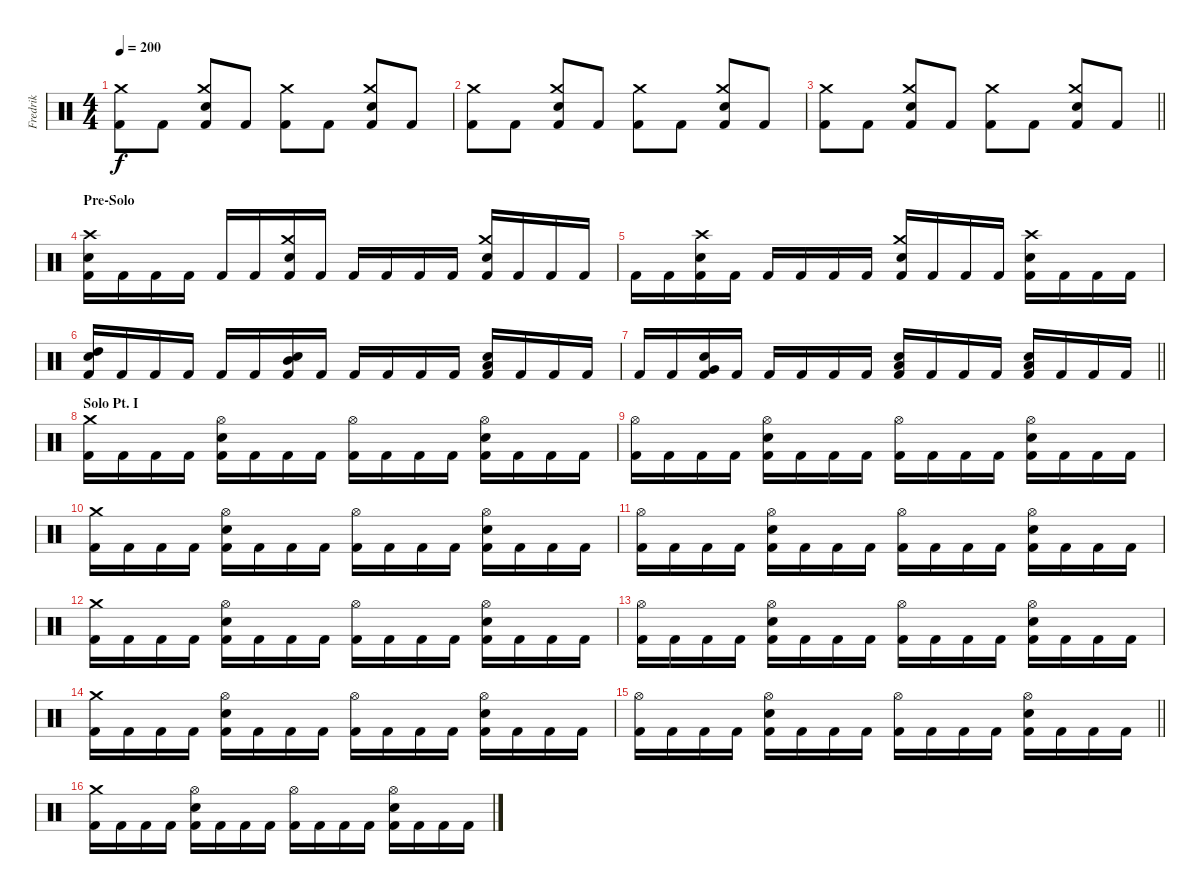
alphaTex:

\track ("Fredrik" "Fredrik") {instrument percussion}
\staff {score}
\articulation defaults
\ts (4 4)
\tempo 200
\clef neutral
\ks c
("Kick (hit) 2" "Crash medium (hit)").8{dy f} "Kick (hit) 2".8 ("Kick (hit) 2" "Snare (hit) 2" "Crash medium (hit)").8 "Kick (hit) 2".8 ("Kick (hit) 2" "Crash medium (hit)").8 "Kick (hit) 2".8 ("Kick (hit) 2" "Snare (hit) 2" "Crash medium (hit)").8 "Kick (hit) 2".8 |
("Kick (hit) 2" "Crash medium (hit)").8 "Kick (hit) 2".8 ("Kick (hit) 2" "Snare (hit) 2" "Crash medium (hit)").8 "Kick (hit) 2".8 ("Kick (hit) 2" "Crash medium (hit)").8 "Kick (hit) 2".8 ("Kick (hit) 2" "Snare (hit) 2" "Crash medium (hit)").8 "Kick (hit) 2".8 |
\barLineRight lightlight
("Kick (hit) 2" "Crash medium (hit)").8 "Kick (hit) 2".8 ("Kick (hit) 2" "Snare (hit) 2" "Crash medium (hit)").8 "Kick (hit) 2".8 ("Kick (hit) 2" "Crash medium (hit)").8 "Kick (hit) 2".8 ("Kick (hit) 2" "Snare (hit) 2" "Crash medium (hit)").8 "Kick (hit) 2".8 |
\section ("" "Pre-Solo")
("Kick (hit) 2" "Snare (hit) 2" "Crash high (hit)").16 "Kick (hit) 2".16 "Kick (hit) 2".16 "Kick (hit) 2".16 "Kick (hit) 2".16 "Kick (hit) 2".16 ("Kick (hit) 2" "Snare (hit) 2" "Crash medium (hit)").16 "Kick (hit) 2".16 "Kick (hit) 2".16 "Kick (hit) 2".16 "Kick (hit) 2".16 "Kick (hit) 2".16 ("Kick (hit) 2" "Snare (hit) 2" "Crash medium (hit)").16 "Kick (hit) 2".16 "Kick (hit) 2".16 "Kick (hit) 2".16 |
"Kick (hit) 2".16 "Kick (hit) 2".16 ("Kick (hit) 2" "Snare (hit) 2" "Crash high (hit)").16 "Kick (hit) 2".16 "Kick (hit) 2".16 "Kick (hit) 2".16 "Kick (hit) 2".16 "Kick (hit) 2".16 ("Kick (hit) 2" "Snare (hit) 2" "Crash medium (hit)").16 "Kick (hit) 2".16 "Kick (hit) 2".16 "Kick (hit) 2".16 ("Kick (hit) 2" "Snare (hit) 2" "Crash high (hit)").16 "Kick (hit) 2".16 "Kick (hit) 2".16 "Kick (hit) 2".16 |
("Kick (hit) 2" "Snare (hit) 2" "High Tom (hit)").16 "Kick (hit) 2".16 "Kick (hit) 2".16 "Kick (hit) 2".16 "Kick (hit) 2".16 "Kick (hit) 2".16 ("Kick (hit) 2" "Snare (hit) 2" "Mid Tom (hit)").16 "Kick (hit) 2".16 "Kick (hit) 2".16 "Kick (hit) 2".16 "Kick (hit) 2".16 "Kick (hit) 2".16 ("Kick (hit) 2" "Snare (hit) 2" "Low Tom (hit)").16 "Kick (hit) 2".16 "Kick (hit) 2".16 "Kick (hit) 2".16 |
\barLineRight lightlight "Kick (hit) 2".16 "Kick (hit) 2".16
("Kick (hit) 2" "Snare (hit) 2" "Very Low Tom (hit)").16 "Kick (hit) 2".16 "Kick (hit) 2".16 "Kick (hit) 2".16 "Kick (hit) 2".16 "Kick (hit) 2".16 ("Kick (hit) 2" "Snare (hit) 2" "Low Floor Tom (hit)").16 "Kick (hit) 2".16 "Kick (hit) 2".16 "Kick (hit) 2".16 ("Kick (hit) 2" "Snare (hit) 2" "Low Floor Tom (hit)").16 "Kick (hit) 2".16 "Kick (hit) 2".16 "Kick (hit) 2".16 |
\section ("" "Solo Pt. I")
("Kick (hit) 2" "Crash medium (hit)").16 "Kick (hit) 2".16 "Kick (hit) 2".16 "Kick (hit) 2".16 ("Kick (hit) 2" "Snare (hit) 2" "Hi-Hat (open)").16 "Kick (hit) 2".16 "Kick (hit) 2".16 "Kick (hit) 2".16 ("Kick (hit) 2" "Hi-Hat (open)").16 "Kick (hit) 2".16 "Kick (hit) 2".16 "Kick (hit) 2".16 ("Kick (hit) 2" "Snare (hit) 2" "Hi-Hat (open)").16 "Kick (hit) 2".16 "Kick (hit) 2".16 "Kick (hit) 2".16 |
("Kick (hit) 2" "Hi-Hat (open)").16 "Kick (hit) 2".16 "Kick (hit) 2".16 "Kick (hit) 2".16 ("Kick (hit) 2" "Snare (hit) 2" "Hi-Hat (open)").16 "Kick (hit) 2".16 "Kick (hit) 2".16 "Kick (hit) 2".16 ("Kick (hit) 2" "Hi-Hat (open)").16 "Kick (hit) 2".16 "Kick (hit) 2".16 "Kick (hit) 2".16 ("Kick (hit) 2" "Snare (hit) 2" "Hi-Hat (open)").16 "Kick (hit) 2".16 "Kick (hit) 2".16 "Kick (hit) 2".16 |
("Kick (hit) 2" "Crash medium (hit)").16 "Kick (hit) 2".16 "Kick (hit) 2".16 "Kick (hit) 2".16 ("Kick (hit) 2" "Snare (hit) 2" "Hi-Hat (open)").16 "Kick (hit) 2".16 "Kick (hit) 2".16 "Kick (hit) 2".16 ("Kick (hit) 2" "Hi-Hat (open)").16 "Kick (hit) 2".16 "Kick (hit) 2".16 "Kick (hit) 2".16 ("Kick (hit) 2" "Snare (hit) 2" "Hi-Hat (open)").16 "Kick (hit) 2".16 "Kick (hit) 2".16 "Kick (hit) 2".16 |
("Kick (hit) 2" "Hi-Hat (open)").16 "Kick (hit) 2".16 "Kick (hit) 2".16 "Kick (hit) 2".16 ("Kick (hit) 2" "Snare (hit) 2" "Hi-Hat (open)").16 "Kick (hit) 2".16 "Kick (hit) 2".16 "Kick (hit) 2".16 ("Kick (hit) 2" "Hi-Hat (open)").16 "Kick (hit) 2".16 "Kick (hit) 2".16 "Kick (hit) 2".16 ("Kick (hit) 2" "Snare (hit) 2" "Hi-Hat (open)").16 "Kick (hit) 2".16 "Kick (hit) 2".16 "Kick (hit) 2".16 |
("Kick (hit) 2" "Crash medium (hit)").16 "Kick (hit) 2".16 "Kick (hit) 2".16 "Kick (hit) 2".16 ("Kick (hit) 2" "Snare (hit) 2" "Hi-Hat (open)").16 "Kick (hit) 2".16 "Kick (hit) 2".16 "Kick (hit) 2".16 ("Kick (hit) 2" "Hi-Hat (open)").16 "Kick (hit) 2".16 "Kick (hit) 2".16 "Kick (hit) 2".16 ("Kick (hit) 2" "Snare (hit) 2" "Hi-Hat (open)").16 "Kick (hit) 2".16 "Kick (hit) 2".16 "Kick (hit) 2".16 |
("Kick (hit) 2" "Hi-Hat (open)").16 "Kick (hit) 2".16 "Kick (hit) 2".16 "Kick (hit) 2".16 ("Kick (hit) 2" "Snare (hit) 2" "Hi-Hat (open)").16 "Kick (hit) 2".16 "Kick (hit) 2".16 "Kick (hit) 2".16 ("Kick (hit) 2" "Hi-Hat (open)").16 "Kick (hit) 2".16 "Kick (hit) 2".16 "Kick (hit) 2".16 ("Kick (hit) 2" "Snare (hit) 2" "Hi-Hat (open)").16 "Kick (hit) 2".16 "Kick (hit) 2".16 "Kick (hit) 2".16 |
("Kick (hit) 2" "Crash medium (hit)").16 "Kick (hit) 2".16 "Kick (hit) 2".16 "Kick (hit) 2".16 ("Kick (hit) 2" "Snare (hit) 2" "Hi-Hat (open)").16 "Kick (hit) 2".16 "Kick (hit) 2".16 "Kick (hit) 2".16 ("Kick (hit) 2" "Hi-Hat (open)").16 "Kick (hit) 2".16 "Kick (hit) 2".16 "Kick (hit) 2".16 ("Kick (hit) 2" "Snare (hit) 2" "Hi-Hat (open)").16 "Kick (hit) 2".16 "Kick (hit) 2".16 "Kick (hit) 2".16 |
\barLineRight lightlight
("Kick (hit) 2" "Hi-Hat (open)").16 "Kick (hit) 2".16 "Kick (hit) 2".16 "Kick (hit) 2".16 ("Kick (hit) 2" "Snare (hit) 2" "Hi-Hat (open)").16 "Kick (hit) 2".16 "Kick (hit) 2".16 "Kick (hit) 2".16 ("Kick (hit) 2" "Hi-Hat (open)").16 "Kick (hit) 2".16 "Kick (hit) 2".16 "Kick (hit) 2".16 ("Kick (hit) 2" "Snare (hit) 2" "Hi-Hat (open)").16 "Kick (hit) 2".16 "Kick (hit) 2".16 "Kick (hit) 2".16 |
\section ("" "")
("Kick (hit) 2" "Crash medium (hit)").16 "Kick (hit) 2".16 "Kick (hit) 2".16 "Kick (hit) 2".16 ("Kick (hit) 2" "Snare (hit) 2" "Hi-Hat (open)").16 "Kick (hit) 2".16 "Kick (hit) 2".16 "Kick (hit) 2".16 ("Kick (hit) 2" "Hi-Hat (open)").16 "Kick (hit) 2".16 "Kick (hit) 2".16 "Kick (hit) 2".16 ("Kick (hit) 2" "Snare (hit) 2" "Hi-Hat (open)").16 "Kick (hit) 2".16 "Kick (hit) 2".16 "Kick (hit) 2".16
